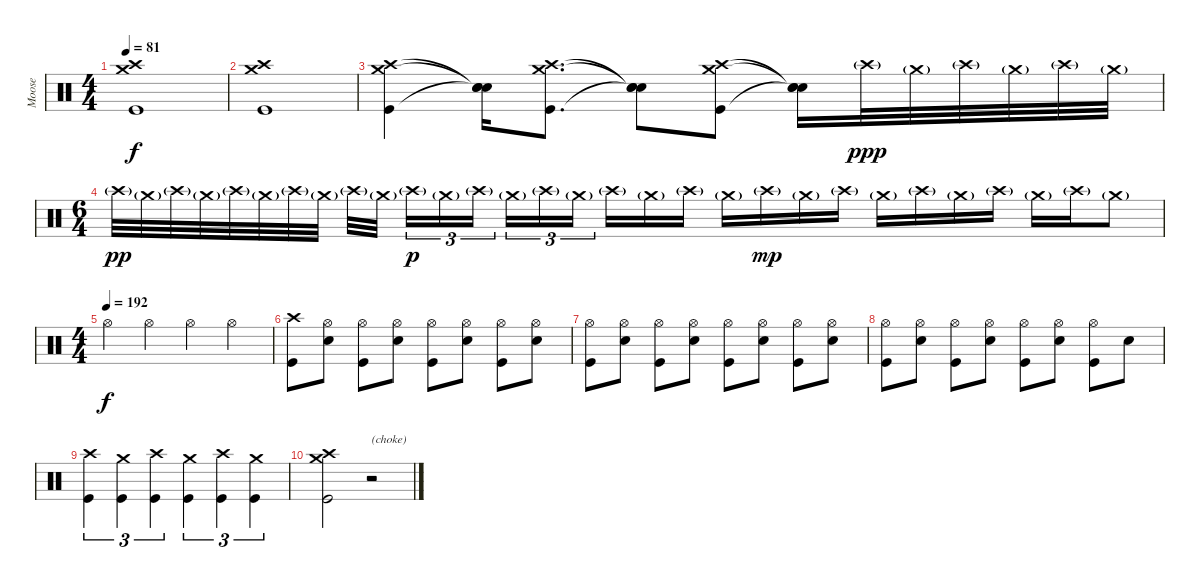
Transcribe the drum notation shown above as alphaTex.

\track ("Moose" "Moose") {instrument percussion}
\staff {score}
\articulation defaults
\ts (4 4)
\tempo 81
\clef neutral
\ks c
("Crash high (hit)" "Crash medium (hit)" "Kick (hit)").1{dy f} |
("Crash high (hit)" "Crash medium (hit)" "Kick (hit)").1 |
("Crash high (hit)" "Crash medium (hit)" "Kick (hit)").4 ("Snare (hit)"{t} "Snare (hit)"{t} "Snare (hit)"{t}).16 ("Crash high (hit)" "Crash medium (hit)" "Kick (hit)").8{d} ("Snare (hit)"{t} "Snare (hit)"{t} "Snare (hit)"{t}).8 ("Crash high (hit)" "Crash medium (hit)" "Kick (hit)").8 ("Snare (hit)"{t} "Snare (hit)"{t} "Snare (hit)"{t}).16 "Crash high (hit)"{g}.32{dy ppp} "Crash medium (hit)"{g}.32 "Crash high (hit)"{g}.32 "Crash medium (hit)"{g}.32 "Crash high (hit)"{g}.32 "Crash medium (hit)"{g}.32 |
\ts (6 4)
"Crash high (hit)"{g}.32{dy pp} "Crash medium (hit)"{g}.32 "Crash high (hit)"{g}.32 "Crash medium (hit)"{g}.32 "Crash high (hit)"{g}.32 "Crash medium (hit)"{g}.32 "Crash high (hit)"{g}.32 "Crash medium (hit)"{g}.32 "Crash high (hit)"{g}.32 "Crash medium (hit)"{g}.32{beam splitsecondary} "Crash high (hit)"{g}.16{tu (3 2) dy p} "Crash medium (hit)"{g}.16{tu (3 2)} "Crash high (hit)"{g}.16{tu (3 2) beam splitsecondary} "Crash medium (hit)"{g}.16{tu (3 2)} "Crash high (hit)"{g}.16{tu (3 2)} "Crash medium (hit)"{g}.16{tu (3 2) beam splitsecondary} "Crash high (hit)"{g}.16 "Crash medium (hit)"{g}.16 "Crash high (hit)"{g}.16 "Crash medium (hit)"{g}.16 "Crash high (hit)"{g}.16{dy mp} "Crash medium (hit)"{g}.16 "Crash high (hit)"{g}.16 "Crash medium (hit)"{g}.16 "Crash high (hit)"{g}.16 "Crash medium (hit)"{g}.16 "Crash high (hit)"{g}.16 "Crash medium (hit)"{g}.16 "Crash high (hit)"{g}.16 "Crash medium (hit)"{g}.8 |
\ts (4 4)
\tempo (192)
"Hi-Hat (open)".4{dy f} "Hi-Hat (open)".4 "Hi-Hat (open)".4 "Hi-Hat (open)".4 |
("Crash high (hit)" "Kick (hit)").8 ("Hi-Hat (open)" "Electric Snare (hit)").8 ("Hi-Hat (open)" "Kick (hit)").8 ("Hi-Hat (open)" "Electric Snare (hit)").8 ("Hi-Hat (open)" "Kick (hit)").8 ("Hi-Hat (open)" "Electric Snare (hit)").8 ("Hi-Hat (open)" "Kick (hit)").8 ("Hi-Hat (open)" "Electric Snare (hit)").8 |
("Hi-Hat (open)" "Kick (hit)").8 ("Hi-Hat (open)" "Electric Snare (hit)").8 ("Hi-Hat (open)" "Kick (hit)").8 ("Hi-Hat (open)" "Electric Snare (hit)").8 ("Hi-Hat (open)" "Kick (hit)").8 ("Hi-Hat (open)" "Electric Snare (hit)").8 ("Hi-Hat (open)" "Kick (hit)").8 ("Hi-Hat (open)" "Electric Snare (hit)").8 |
("Hi-Hat (open)" "Kick (hit)").8 ("Hi-Hat (open)" "Electric Snare (hit)").8 ("Hi-Hat (open)" "Kick (hit)").8 ("Hi-Hat (open)" "Electric Snare (hit)").8 ("Hi-Hat (open)" "Kick (hit)").8 ("Hi-Hat (open)" "Electric Snare (hit)").8 ("Hi-Hat (open)" "Kick (hit)").8 "Electric Snare (hit)".8 |
("Crash high (hit)" "Kick (hit)").4{tu (3 2)} ("Crash medium (hit)" "Kick (hit)").4{tu (3 2)} ("Crash high (hit)" "Kick (hit)").4{tu (3 2)} ("Crash medium (hit)" "Kick (hit)").4{tu (3 2)} ("Crash high (hit)" "Kick (hit)").4{tu (3 2)} ("Crash medium (hit)" "Kick (hit)").4{tu (3 2)} |
("Crash high (hit)" "Crash medium (hit)" "Kick (hit)").2 r.2{txt "(choke)"}
